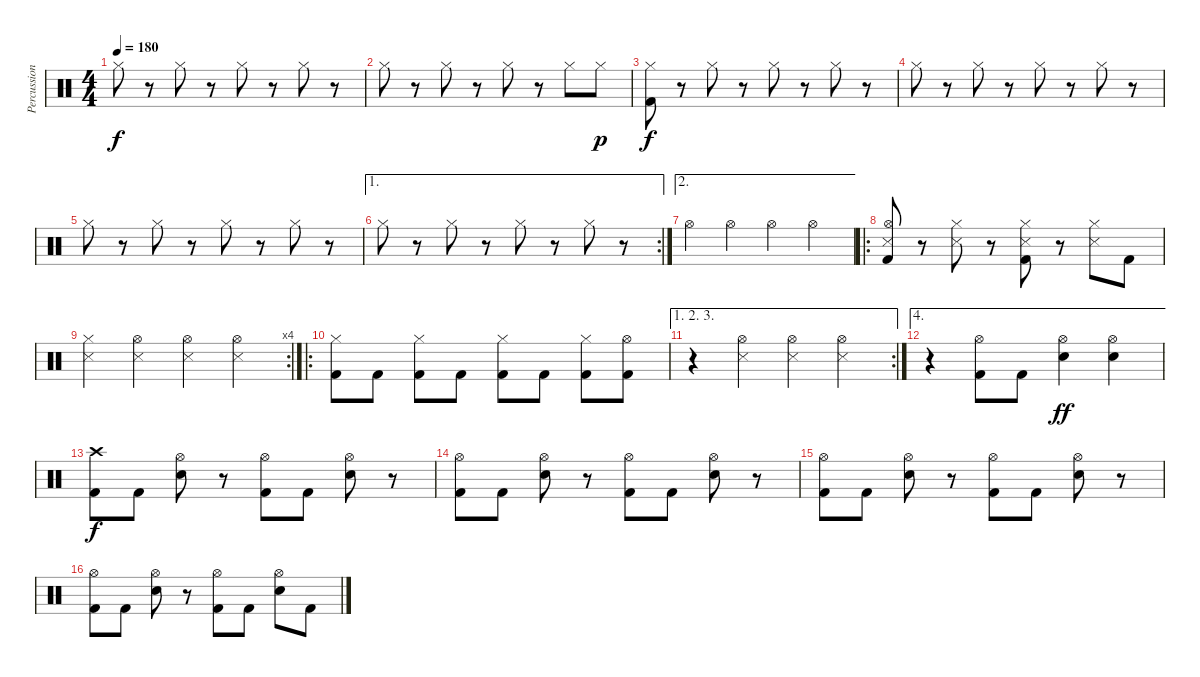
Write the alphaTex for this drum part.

\track ("Percussion" "Percussion") {instrument percussion}
\staff {score}
\articulation defaults
\ts (4 4)
\tempo 180
\clef neutral
\ks c "Hi-Hat (closed)".8{dy f}
r.8 "Hi-Hat (closed)".8 r.8 "Hi-Hat (closed)".8 r.8 "Hi-Hat (closed)".8 r.8 |
"Hi-Hat (closed)".8 r.8 "Hi-Hat (closed)".8 r.8 "Hi-Hat (closed)".8 r.8 "Hi-Hat (closed)".8 "Hi-Hat (closed)".8{dy p} |
("Hi-Hat (closed)" "Kick (hit) 2").8{dy f} r.8 "Hi-Hat (closed)".8 r.8 "Hi-Hat (closed)".8 r.8 "Hi-Hat (closed)".8 r.8 |
"Hi-Hat (closed)".8 r.8 "Hi-Hat (closed)".8 r.8 "Hi-Hat (closed)".8 r.8 "Hi-Hat (closed)".8 r.8 |
"Hi-Hat (closed)".8 r.8 "Hi-Hat (closed)".8 r.8 "Hi-Hat (closed)".8 r.8 "Hi-Hat (closed)".8 r.8 |
\ae 1
\rc 2 "Hi-Hat (closed)".8
r.8 "Hi-Hat (closed)".8 r.8 "Hi-Hat (closed)".8 r.8 "Hi-Hat (closed)".8 r.8 |
\ae 2 "Hi-Hat (open)".4 "Hi-Hat (open)".4 "Hi-Hat (open)".4 "Hi-Hat (open)".4
|
\ro
("Hi-Hat (open)" "Snare (side stick) 3" "Kick (hit) 2").8 r.8 ("Hi-Hat (closed)" "Snare (side stick) 3").8 r.8 ("Hi-Hat (closed)" "Snare (side stick) 3" "Kick (hit) 2").8 r.8 ("Hi-Hat (closed)" "Snare (side stick) 3").8 "Kick (hit) 2".8 |
\rc 4
("Hi-Hat (closed)" "Snare (side stick) 3").4 ("Hi-Hat (open)" "Snare (side stick) 3").4 ("Hi-Hat (open)" "Snare (side stick) 3").4 ("Hi-Hat (open)" "Snare (side stick) 3").4 |
\ro
("Hi-Hat (closed)" "Kick (hit) 2").8 "Kick (hit) 2".8 ("Hi-Hat (closed)" "Kick (hit) 2").8 "Kick (hit) 2".8 ("Hi-Hat (closed)" "Kick (hit) 2").8 "Kick (hit) 2".8 ("Hi-Hat (closed)" "Kick (hit) 2").8 ("Hi-Hat (open)" "Kick (hit) 2").8 |
\ae (1 2 3)
\rc 2
r.4 ("Hi-Hat (open)" "Snare (side stick) 3").4 ("Hi-Hat (open)" "Snare (side stick) 3").4 ("Hi-Hat (open)" "Snare (side stick) 3").4 |
\ae 4
r.4 ("Hi-Hat (open)" "Kick (hit) 2").8 "Kick (hit) 2".8 ("Hi-Hat (open)" "Electric Snare (hit)").4{dy ff} ("Hi-Hat (open)" "Electric Snare (hit)").4 |
("Crash high (hit)" "Kick (hit) 2").8{dy f} "Kick (hit) 2".8 ("Hi-Hat (open)" "Electric Snare (hit)").8 r.8 ("Hi-Hat (open)" "Kick (hit) 2").8 "Kick (hit) 2".8 ("Hi-Hat (open)" "Electric Snare (hit)").8 r.8 |
("Hi-Hat (open)" "Kick (hit) 2").8 "Kick (hit) 2".8 ("Hi-Hat (open)" "Electric Snare (hit)").8 r.8 ("Hi-Hat (open)" "Kick (hit) 2").8 "Kick (hit) 2".8 ("Hi-Hat (open)" "Electric Snare (hit)").8 r.8 |
("Hi-Hat (open)" "Kick (hit) 2").8 "Kick (hit) 2".8 ("Hi-Hat (open)" "Electric Snare (hit)").8 r.8 ("Hi-Hat (open)" "Kick (hit) 2").8 "Kick (hit) 2".8 ("Hi-Hat (open)" "Electric Snare (hit)").8 r.8 |
("Hi-Hat (open)" "Kick (hit) 2").8 "Kick (hit) 2".8 ("Hi-Hat (open)" "Electric Snare (hit)").8 r.8 ("Hi-Hat (open)" "Kick (hit) 2").8 "Kick (hit) 2".8 ("Hi-Hat (open)" "Electric Snare (hit)").8 "Kick (hit) 2".8
